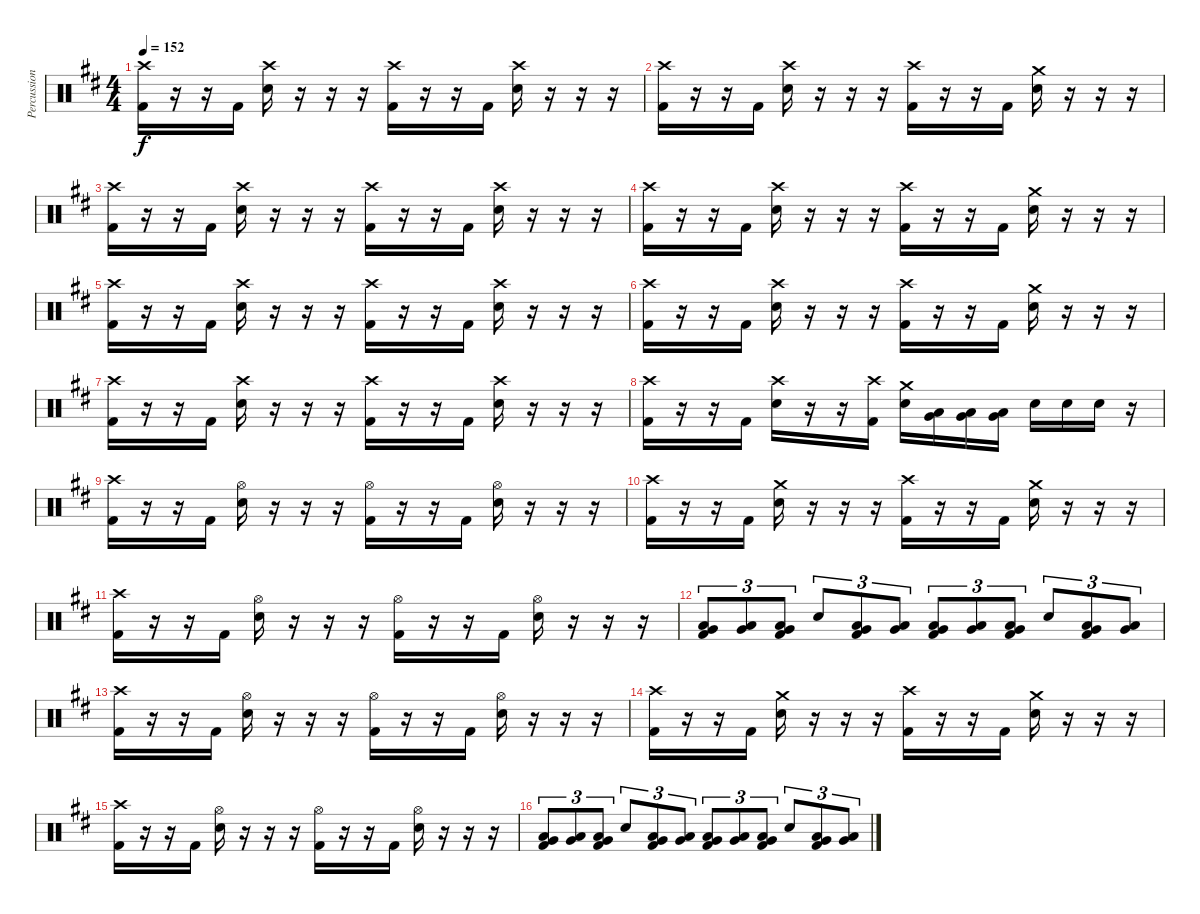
\track ("Percussion" "Percussion") {instrument percussion}
\staff {score}
\articulation defaults
\ts (4 4)
\tempo 152
\clef neutral
\ks d
("Crash high (hit)" "Kick (hit) 2").16{dy f} r.16 r.16 "Kick (hit) 2".16 ("Crash high (hit)" "Snare (hit) 2").16 r.16 r.16 r.16 ("Crash high (hit)" "Kick (hit) 2").16 r.16 r.16 "Kick (hit) 2".16 ("Crash high (hit)" "Snare (hit) 2").16 r.16 r.16 r.16 |
("Crash high (hit)" "Kick (hit) 2").16 r.16 r.16 "Kick (hit) 2".16 ("Crash high (hit)" "Snare (hit) 2").16 r.16 r.16 r.16 ("Crash high (hit)" "Kick (hit) 2").16 r.16 r.16 "Kick (hit) 2".16 ("Crash medium (hit)" "Snare (hit) 2").16 r.16 r.16 r.16 |
("Crash high (hit)" "Kick (hit) 2").16 r.16 r.16 "Kick (hit) 2".16 ("Crash high (hit)" "Snare (hit) 2").16 r.16 r.16 r.16 ("Crash high (hit)" "Kick (hit) 2").16 r.16 r.16 "Kick (hit) 2".16 ("Crash high (hit)" "Snare (hit) 2").16 r.16 r.16 r.16 |
("Crash high (hit)" "Kick (hit) 2").16 r.16 r.16 "Kick (hit) 2".16 ("Crash high (hit)" "Snare (hit) 2").16 r.16 r.16 r.16 ("Crash high (hit)" "Kick (hit) 2").16 r.16 r.16 "Kick (hit) 2".16 ("Crash medium (hit)" "Snare (hit) 2").16 r.16 r.16 r.16 |
("Crash high (hit)" "Kick (hit) 2").16 r.16 r.16 "Kick (hit) 2".16 ("Crash high (hit)" "Snare (hit) 2").16 r.16 r.16 r.16 ("Crash high (hit)" "Kick (hit) 2").16 r.16 r.16 "Kick (hit) 2".16 ("Crash high (hit)" "Snare (hit) 2").16 r.16 r.16 r.16 |
("Crash high (hit)" "Kick (hit) 2").16 r.16 r.16 "Kick (hit) 2".16 ("Crash high (hit)" "Snare (hit) 2").16 r.16 r.16 r.16 ("Crash high (hit)" "Kick (hit) 2").16 r.16 r.16 "Kick (hit) 2".16 ("Crash medium (hit)" "Snare (hit) 2").16 r.16 r.16 r.16 |
("Crash high (hit)" "Kick (hit) 2").16 r.16 r.16 "Kick (hit) 2".16 ("Crash high (hit)" "Snare (hit) 2").16 r.16 r.16 r.16 ("Crash high (hit)" "Kick (hit) 2").16 r.16 r.16 "Kick (hit) 2".16 ("Crash high (hit)" "Snare (hit) 2").16 r.16 r.16 r.16 |
("Crash high (hit)" "Kick (hit) 2").16 r.16 r.16 "Kick (hit) 2".16 ("Crash high (hit)" "Snare (hit) 2").16 r.16 r.16 ("Crash high (hit)" "Kick (hit) 2").16 ("Crash medium (hit)" "Snare (hit) 2").16 ("Low Tom (hit)" "Very Low Tom (hit)").16 ("Low Tom (hit)" "Very Low Tom (hit)").16 ("Low Tom (hit)" "Very Low Tom (hit)").16 "Snare (hit) 2".16 "Snare (hit) 2".16 "Snare (hit) 2".16 r.16 |
("Crash high (hit)" "Kick (hit) 2").16 r.16 r.16 "Kick (hit) 2".16 ("Hi-Hat (open)" "Snare (hit) 2").16 r.16 r.16 r.16 ("Hi-Hat (open)" "Kick (hit) 2").16 r.16 r.16 "Kick (hit) 2".16 ("Hi-Hat (open)" "Snare (hit) 2").16 r.16 r.16 r.16 |
("Crash high (hit)" "Kick (hit) 2").16 r.16 r.16 "Kick (hit) 2".16 ("Crash medium (hit)" "Snare (hit) 2").16 r.16 r.16 r.16 ("Crash high (hit)" "Kick (hit) 2").16 r.16 r.16 "Kick (hit) 2".16 ("Crash medium (hit)" "Snare (hit) 2").16 r.16 r.16 r.16 |
("Crash high (hit)" "Kick (hit) 2").16 r.16 r.16 "Kick (hit) 2".16 ("Hi-Hat (open)" "Snare (hit) 2").16 r.16 r.16 r.16 ("Hi-Hat (open)" "Kick (hit) 2").16 r.16 r.16 "Kick (hit) 2".16 ("Hi-Hat (open)" "Snare (hit) 2").16 r.16 r.16 r.16 |
("Very Low Tom (hit)" "Low Floor Tom (hit)" "Kick (hit) 2").8{tu (3 2)} ("Very Low Tom (hit)" "Low Floor Tom (hit)").8{tu (3 2)} ("Very Low Tom (hit)" "Low Floor Tom (hit)" "Kick (hit) 2").8{tu (3 2)} "Snare (hit) 2".8{tu (3 2)} ("Very Low Tom (hit)" "Low Floor Tom (hit)" "Kick (hit) 2").8{tu (3 2)} ("Very Low Tom (hit)" "Low Floor Tom (hit)").8{tu (3 2)} ("Very Low Tom (hit)" "Low Floor Tom (hit)" "Kick (hit) 2").8{tu (3 2)} ("Very Low Tom (hit)" "Low Floor Tom (hit)").8{tu (3 2)} ("Very Low Tom (hit)" "Low Floor Tom (hit)" "Kick (hit) 2").8{tu (3 2)} "Snare (hit) 2".8{tu (3 2)} ("Very Low Tom (hit)" "Low Floor Tom (hit)" "Kick (hit) 2").8{tu (3 2)} ("Very Low Tom (hit)" "Low Floor Tom (hit)").8{tu (3 2)} |
("Crash high (hit)" "Kick (hit) 2").16 r.16 r.16 "Kick (hit) 2".16 ("Hi-Hat (open)" "Snare (hit) 2").16 r.16 r.16 r.16 ("Hi-Hat (open)" "Kick (hit) 2").16 r.16 r.16 "Kick (hit) 2".16 ("Hi-Hat (open)" "Snare (hit) 2").16 r.16 r.16 r.16 |
("Crash high (hit)" "Kick (hit) 2").16 r.16 r.16 "Kick (hit) 2".16 ("Crash medium (hit)" "Snare (hit) 2").16 r.16 r.16 r.16 ("Crash high (hit)" "Kick (hit) 2").16 r.16 r.16 "Kick (hit) 2".16 ("Crash medium (hit)" "Snare (hit) 2").16 r.16 r.16 r.16 |
("Crash high (hit)" "Kick (hit) 2").16 r.16 r.16 "Kick (hit) 2".16 ("Hi-Hat (open)" "Snare (hit) 2").16 r.16 r.16 r.16 ("Hi-Hat (open)" "Kick (hit) 2").16 r.16 r.16 "Kick (hit) 2".16 ("Hi-Hat (open)" "Snare (hit) 2").16 r.16 r.16 r.16 |
("Very Low Tom (hit)" "Low Floor Tom (hit)" "Kick (hit) 2").8{tu (3 2)} ("Very Low Tom (hit)" "Low Floor Tom (hit)").8{tu (3 2)} ("Very Low Tom (hit)" "Low Floor Tom (hit)" "Kick (hit) 2").8{tu (3 2)} "Snare (hit) 2".8{tu (3 2)} ("Very Low Tom (hit)" "Low Floor Tom (hit)" "Kick (hit) 2").8{tu (3 2)} ("Very Low Tom (hit)" "Low Floor Tom (hit)").8{tu (3 2)} ("Very Low Tom (hit)" "Low Floor Tom (hit)" "Kick (hit) 2").8{tu (3 2)} ("Very Low Tom (hit)" "Low Floor Tom (hit)").8{tu (3 2)} ("Very Low Tom (hit)" "Low Floor Tom (hit)" "Kick (hit) 2").8{tu (3 2)} "Snare (hit) 2".8{tu (3 2)} ("Very Low Tom (hit)" "Low Floor Tom (hit)" "Kick (hit) 2").8{tu (3 2)} ("Very Low Tom (hit)" "Low Floor Tom (hit)").8{tu (3 2)}
